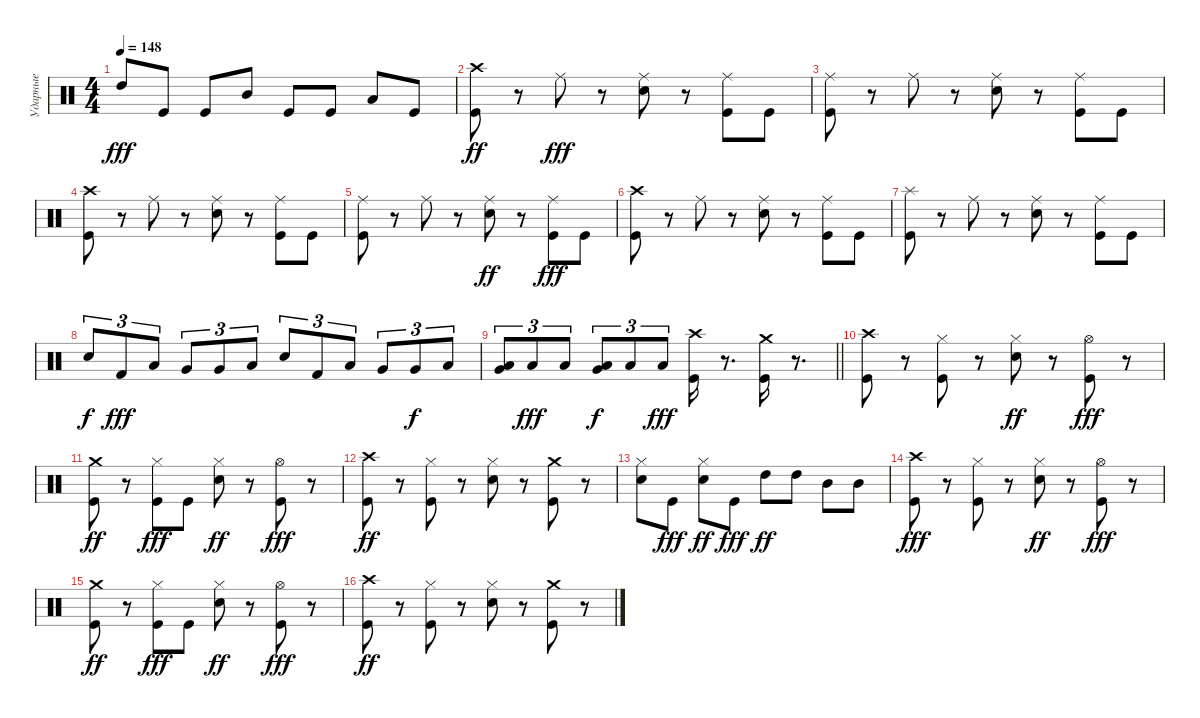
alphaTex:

\track ("Ударные" "Ударные") {instrument percussion}
\staff {score}
\articulation defaults
\ts (4 4)
\tempo 148
\clef neutral
\ks c "High Tom (hit)".8{dy fff} "Kick (hit)".8 "Kick (hit)".8 "Mid Tom (hit)".8 "Kick (hit)".8 "Kick (hit)".8 "Low Tom (hit)".8 "Kick (hit)".8
|
("Kick (hit)" "Crash high (hit)").8{dy ff} r.8 "Ride (middle)".8{dy fff} r.8 ("Snare (hit) 2" "Ride (middle)").8 r.8 ("Ride (middle)" "Kick (hit)").8 "Kick (hit)".8 |
("Kick (hit)" "Ride (middle)").8 r.8 "Ride (middle)".8 r.8 ("Snare (hit) 2" "Ride (middle)").8 r.8 ("Ride (middle)" "Kick (hit)").8 "Kick (hit)".8 |
("Crash high (hit)" "Kick (hit)").8 r.8 "Ride (middle)".8 r.8 ("Snare (hit) 2" "Ride (middle)").8 r.8 ("Ride (middle)" "Kick (hit)").8 "Kick (hit)".8 |
("Ride (middle)" "Kick (hit)").8 r.8 "Ride (middle)".8 r.8 ("Ride (middle)" "Snare (hit) 2").8{dy ff} r.8 ("Ride (middle)" "Kick (hit)").8{dy fff} "Kick (hit)".8 |
("Crash high (hit)" "Kick (hit)").8 r.8 "Ride (middle)".8 r.8 ("Snare (hit) 2" "Ride (middle)").8 r.8 ("Kick (hit)" "Ride (middle)").8 "Kick (hit)".8 |
("Splash (hit)" "Kick (hit)").8 r.8 "Ride (middle)".8 r.8 ("Snare (hit) 2" "Ride (middle)").8 r.8 ("Ride (middle)" "Kick (hit)").8 "Kick (hit)".8 |
"Snare (hit) 2".8{tu (3 2) dy f} "Kick (hit) 2".8{tu (3 2) dy fff} "Low Tom (hit)".8{tu (3 2)} "Very Low Tom (hit)".8{tu (3 2)} "Very Low Tom (hit)".8{tu (3 2)} "Low Floor Tom (hit)".8{tu (3 2)} "Snare (hit) 2".8{tu (3 2)} "Kick (hit) 2".8{tu (3 2)} "Low Tom (hit)".8{tu (3 2)} "Very Low Tom (hit)".8{tu (3 2)} "Very Low Tom (hit)".8{tu (3 2) dy f} "Low Floor Tom (hit)".8{tu (3 2)} |
\barLineRight lightlight
("Low Floor Tom (hit)" "Very Low Tom (hit)").8{tu (3 2)} "Low Floor Tom (hit)".8{tu (3 2) dy fff} "Low Floor Tom (hit)".8{tu (3 2)} ("Low Floor Tom (hit)" "Very Low Tom (hit)").8{tu (3 2) dy f} "Low Floor Tom (hit)".8{tu (3 2)} "Low Floor Tom (hit)".8{tu (3 2) dy fff} ("Crash high (hit)" "Kick (hit)").16 r.8{d} ("Crash medium (hit)" "Kick (hit)").16 r.8{d} |
("Crash high (hit)" "Kick (hit)").8 r.8 ("Hi-Hat (closed)" "Kick (hit)").8 r.8 ("Hi-Hat (closed)" "Snare (hit) 2").8{dy ff} r.8 ("Hi-Hat (open)" "Kick (hit)").8{dy fff} r.8 |
("Kick (hit)" "Crash medium (hit)").8{dy ff} r.8 ("Hi-Hat (closed)" "Kick (hit)").8{dy fff} "Kick (hit)".8 ("Hi-Hat (closed)" "Snare (hit) 2").8{dy ff} r.8 ("Hi-Hat (open)" "Kick (hit)").8{dy fff} r.8 |
("Kick (hit)" "Crash high (hit)").8{dy ff} r.8 ("Kick (hit)" "Hi-Hat (closed)").8 r.8 ("Snare (hit) 2" "Hi-Hat (closed)").8 r.8 ("Kick (hit)" "Crash medium (hit)").8 r.8 |
("Hi-Hat (closed)" "Snare (hit) 2").8 "Kick (hit)".8{dy fff} ("Hi-Hat (closed)" "Snare (hit) 2").8{dy ff} "Kick (hit)".8{dy fff} "High Tom (hit)".8{dy ff} "High Tom (hit)".8 "Mid Tom (hit)".8 "Mid Tom (hit)".8 |
("Crash high (hit)" "Kick (hit)").8{dy fff} r.8 ("Hi-Hat (closed)" "Kick (hit)").8 r.8 ("Hi-Hat (closed)" "Snare (hit) 2").8{dy ff} r.8 ("Hi-Hat (open)" "Kick (hit)").8{dy fff} r.8 |
("Kick (hit)" "Crash medium (hit)").8{dy ff} r.8 ("Hi-Hat (closed)" "Kick (hit)").8{dy fff} "Kick (hit)".8 ("Hi-Hat (closed)" "Snare (hit) 2").8{dy ff} r.8 ("Hi-Hat (open)" "Kick (hit)").8{dy fff} r.8 |
("Kick (hit)" "Crash high (hit)").8{dy ff} r.8 ("Kick (hit)" "Hi-Hat (closed)").8 r.8 ("Snare (hit) 2" "Hi-Hat (closed)").8 r.8 ("Kick (hit)" "Crash medium (hit)").8 r.8
